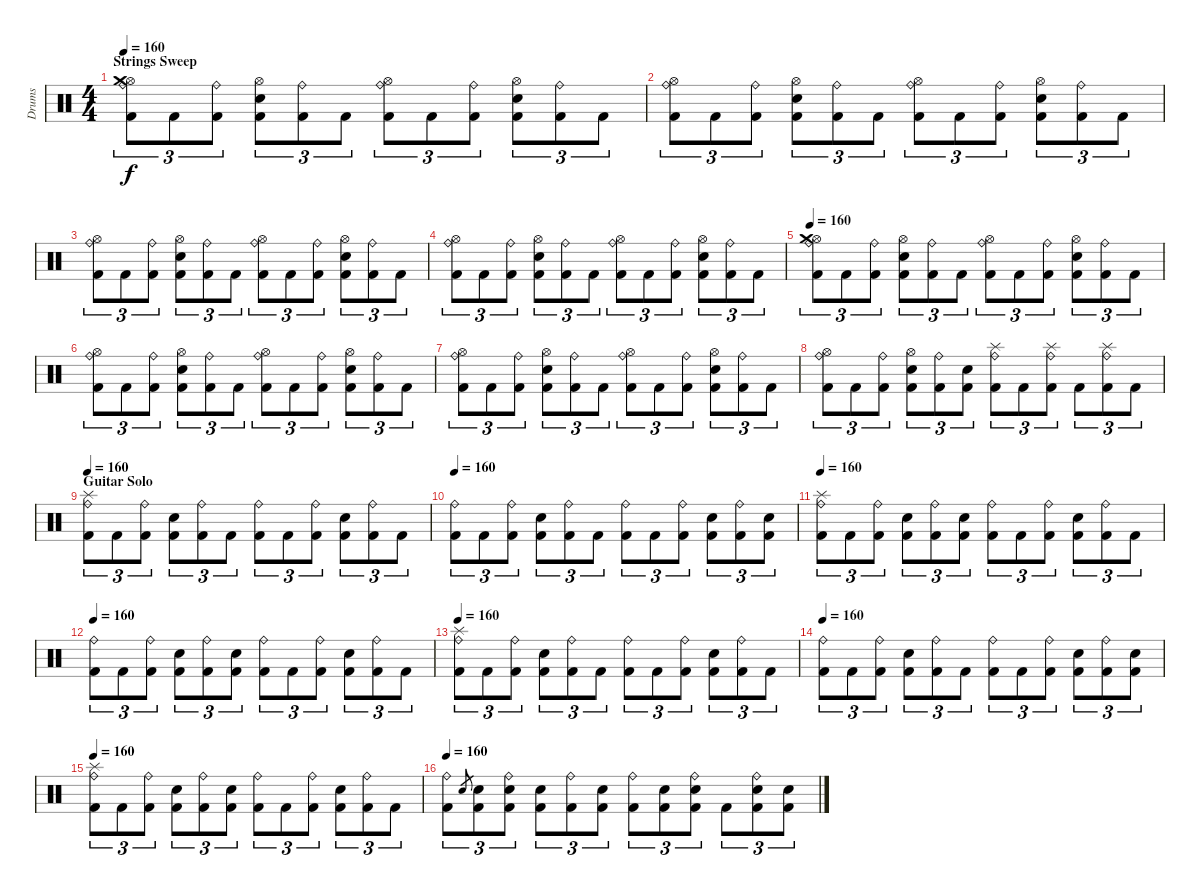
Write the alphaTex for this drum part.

\track ("Drums" "Drums") {instrument percussion}
\staff {score}
\articulation defaults
\ts (4 4)
\section ("" "Strings Sweep")
\tempo 160
\clef neutral
\ks c
("Ride (bell)" "Hi-Hat (open)" "Crash medium (hit)" "Kick (hit) 2").8{tu (3 2) dy f} "Kick (hit) 2".8{tu (3 2)} ("Ride (bell)" "Kick (hit) 2").8{tu (3 2)} ("Hi-Hat (open)" "Snare (hit) 2" "Kick (hit) 2").8{tu (3 2)} ("Ride (bell)" "Kick (hit) 2").8{tu (3 2)} "Kick (hit) 2".8{tu (3 2)} ("Ride (bell)" "Hi-Hat (open)" "Kick (hit) 2").8{tu (3 2)} "Kick (hit) 2".8{tu (3 2)} ("Ride (bell)" "Kick (hit) 2").8{tu (3 2)} ("Hi-Hat (open)" "Snare (hit) 2" "Kick (hit) 2").8{tu (3 2)} ("Ride (bell)" "Kick (hit) 2").8{tu (3 2)} "Kick (hit) 2".8{tu (3 2)} |
("Ride (bell)" "Hi-Hat (open)" "Kick (hit) 2").8{tu (3 2)} "Kick (hit) 2".8{tu (3 2)} ("Ride (bell)" "Kick (hit) 2").8{tu (3 2)} ("Hi-Hat (open)" "Snare (hit) 2" "Kick (hit) 2").8{tu (3 2)} ("Ride (bell)" "Kick (hit) 2").8{tu (3 2)} "Kick (hit) 2".8{tu (3 2)} ("Ride (bell)" "Hi-Hat (open)" "Kick (hit) 2").8{tu (3 2)} "Kick (hit) 2".8{tu (3 2)} ("Ride (bell)" "Kick (hit) 2").8{tu (3 2)} ("Hi-Hat (open)" "Snare (hit) 2" "Kick (hit) 2").8{tu (3 2)} ("Ride (bell)" "Kick (hit) 2").8{tu (3 2)} "Kick (hit) 2".8{tu (3 2)} |
("Ride (bell)" "Hi-Hat (open)" "Kick (hit) 2").8{tu (3 2)} "Kick (hit) 2".8{tu (3 2)} ("Ride (bell)" "Kick (hit) 2").8{tu (3 2)} ("Hi-Hat (open)" "Snare (hit) 2" "Kick (hit) 2").8{tu (3 2)} ("Ride (bell)" "Kick (hit) 2").8{tu (3 2)} "Kick (hit) 2".8{tu (3 2)} ("Ride (bell)" "Hi-Hat (open)" "Kick (hit) 2").8{tu (3 2)} "Kick (hit) 2".8{tu (3 2)} ("Ride (bell)" "Kick (hit) 2").8{tu (3 2)} ("Hi-Hat (open)" "Snare (hit) 2" "Kick (hit) 2").8{tu (3 2)} ("Ride (bell)" "Kick (hit) 2").8{tu (3 2)} "Kick (hit) 2".8{tu (3 2)} |
("Ride (bell)" "Hi-Hat (open)" "Kick (hit) 2").8{tu (3 2)} "Kick (hit) 2".8{tu (3 2)} ("Ride (bell)" "Kick (hit) 2").8{tu (3 2)} ("Hi-Hat (open)" "Snare (hit) 2" "Kick (hit) 2").8{tu (3 2)} ("Ride (bell)" "Kick (hit) 2").8{tu (3 2)} "Kick (hit) 2".8{tu (3 2)} ("Ride (bell)" "Hi-Hat (open)" "Kick (hit) 2").8{tu (3 2)} "Kick (hit) 2".8{tu (3 2)} ("Ride (bell)" "Kick (hit) 2").8{tu (3 2)} ("Hi-Hat (open)" "Snare (hit) 2" "Kick (hit) 2").8{tu (3 2)} ("Ride (bell)" "Kick (hit) 2").8{tu (3 2)} "Kick (hit) 2".8{tu (3 2)} |
\tempo 160
("Ride (bell)" "Hi-Hat (open)" "Crash medium (hit)" "Kick (hit) 2").8{tu (3 2)} "Kick (hit) 2".8{tu (3 2)} ("Ride (bell)" "Kick (hit) 2").8{tu (3 2)} ("Hi-Hat (open)" "Snare (hit) 2" "Kick (hit) 2").8{tu (3 2)} ("Ride (bell)" "Kick (hit) 2").8{tu (3 2)} "Kick (hit) 2".8{tu (3 2)} ("Ride (bell)" "Hi-Hat (open)" "Kick (hit) 2").8{tu (3 2)} "Kick (hit) 2".8{tu (3 2)} ("Ride (bell)" "Kick (hit) 2").8{tu (3 2)} ("Hi-Hat (open)" "Snare (hit) 2" "Kick (hit) 2").8{tu (3 2)} ("Ride (bell)" "Kick (hit) 2").8{tu (3 2)} "Kick (hit) 2".8{tu (3 2)} |
("Ride (bell)" "Hi-Hat (open)" "Kick (hit) 2").8{tu (3 2)} "Kick (hit) 2".8{tu (3 2)} ("Ride (bell)" "Kick (hit) 2").8{tu (3 2)} ("Hi-Hat (open)" "Snare (hit) 2" "Kick (hit) 2").8{tu (3 2)} ("Ride (bell)" "Kick (hit) 2").8{tu (3 2)} "Kick (hit) 2".8{tu (3 2)} ("Ride (bell)" "Hi-Hat (open)" "Kick (hit) 2").8{tu (3 2)} "Kick (hit) 2".8{tu (3 2)} ("Ride (bell)" "Kick (hit) 2").8{tu (3 2)} ("Hi-Hat (open)" "Snare (hit) 2" "Kick (hit) 2").8{tu (3 2)} ("Ride (bell)" "Kick (hit) 2").8{tu (3 2)} "Kick (hit) 2".8{tu (3 2)} |
("Ride (bell)" "Hi-Hat (open)" "Kick (hit) 2").8{tu (3 2)} "Kick (hit) 2".8{tu (3 2)} ("Ride (bell)" "Kick (hit) 2").8{tu (3 2)} ("Hi-Hat (open)" "Snare (hit) 2" "Kick (hit) 2").8{tu (3 2)} ("Ride (bell)" "Kick (hit) 2").8{tu (3 2)} "Kick (hit) 2".8{tu (3 2)} ("Ride (bell)" "Hi-Hat (open)" "Kick (hit) 2").8{tu (3 2)} "Kick (hit) 2".8{tu (3 2)} ("Ride (bell)" "Kick (hit) 2").8{tu (3 2)} ("Hi-Hat (open)" "Snare (hit) 2" "Kick (hit) 2").8{tu (3 2)} ("Ride (bell)" "Kick (hit) 2").8{tu (3 2)} "Kick (hit) 2".8{tu (3 2)} |
("Ride (bell)" "Hi-Hat (open)" "Kick (hit) 2").8{tu (3 2)} "Kick (hit) 2".8{tu (3 2)} ("Ride (bell)" "Kick (hit) 2").8{tu (3 2)} ("Hi-Hat (open)" "Snare (hit) 2" "Kick (hit) 2").8{tu (3 2)} ("Ride (bell)" "Kick (hit) 2").8{tu (3 2)} ("Snare (hit) 2" "Kick (hit) 2").8{tu (3 2)} ("Ride (bell)" "Splash (hit)" "Kick (hit) 2").8{tu (3 2)} "Kick (hit) 2".8{tu (3 2)} ("Ride (bell)" "Splash (hit)" "Kick (hit) 2").8{tu (3 2)} "Kick (hit) 2".8{tu (3 2)} ("Ride (bell)" "Splash (hit)" "Kick (hit) 2").8{tu (3 2)} "Kick (hit) 2".8{tu (3 2)} |
\section ("" "Guitar Solo")
\tempo 160
("Ride (bell)" "Splash (hit)" "Kick (hit) 2").8{tu (3 2)} "Kick (hit) 2".8{tu (3 2)} ("Ride (bell)" "Kick (hit) 2").8{tu (3 2)} ("Snare (hit) 2" "Kick (hit) 2").8{tu (3 2)} ("Ride (bell)" "Kick (hit) 2").8{tu (3 2)} "Kick (hit) 2".8{tu (3 2)} ("Ride (bell)" "Kick (hit) 2").8{tu (3 2)} "Kick (hit) 2".8{tu (3 2)} ("Ride (bell)" "Kick (hit) 2").8{tu (3 2)} ("Snare (hit) 2" "Kick (hit) 2").8{tu (3 2)} ("Ride (bell)" "Kick (hit) 2").8{tu (3 2)} "Kick (hit) 2".8{tu (3 2)} |
\tempo 160
("Ride (bell)" "Kick (hit) 2").8{tu (3 2)} "Kick (hit) 2".8{tu (3 2)} ("Ride (bell)" "Kick (hit) 2").8{tu (3 2)} ("Snare (hit) 2" "Kick (hit) 2").8{tu (3 2)} ("Ride (bell)" "Kick (hit) 2").8{tu (3 2)} "Kick (hit) 2".8{tu (3 2)} ("Ride (bell)" "Kick (hit) 2").8{tu (3 2)} "Kick (hit) 2".8{tu (3 2)} ("Ride (bell)" "Kick (hit) 2").8{tu (3 2)} ("Snare (hit) 2" "Kick (hit) 2").8{tu (3 2)} ("Ride (bell)" "Kick (hit) 2").8{tu (3 2)} ("Snare (hit) 2" "Kick (hit) 2").8{tu (3 2)} |
\tempo 160
("Ride (bell)" "Splash (hit)" "Kick (hit) 2").8{tu (3 2)} "Kick (hit) 2".8{tu (3 2)} ("Ride (bell)" "Kick (hit) 2").8{tu (3 2)} ("Snare (hit) 2" "Kick (hit) 2").8{tu (3 2)} ("Ride (bell)" "Kick (hit) 2").8{tu (3 2)} ("Snare (hit)" "Kick (hit) 2").8{tu (3 2)} ("Ride (bell)" "Kick (hit) 2").8{tu (3 2)} "Kick (hit) 2".8{tu (3 2)} ("Ride (bell)" "Kick (hit) 2").8{tu (3 2)} ("Snare (hit) 2" "Kick (hit) 2").8{tu (3 2)} ("Ride (bell)" "Kick (hit) 2").8{tu (3 2)} "Kick (hit) 2".8{tu (3 2)} |
\tempo 160
("Ride (bell)" "Kick (hit) 2").8{tu (3 2)} "Kick (hit) 2".8{tu (3 2)} ("Ride (bell)" "Kick (hit) 2").8{tu (3 2)} ("Snare (hit) 2" "Kick (hit) 2").8{tu (3 2)} ("Ride (bell)" "Kick (hit) 2").8{tu (3 2)} ("Snare (hit) 2" "Kick (hit) 2").8{tu (3 2)} ("Ride (bell)" "Kick (hit) 2").8{tu (3 2)} "Kick (hit) 2".8{tu (3 2)} ("Ride (bell)" "Kick (hit) 2").8{tu (3 2)} ("Snare (hit) 2" "Kick (hit) 2").8{tu (3 2)} ("Ride (bell)" "Kick (hit) 2").8{tu (3 2)} "Kick (hit) 2".8{tu (3 2)} |
\tempo 160
("Ride (bell)" "Splash (hit)" "Kick (hit) 2").8{tu (3 2)} "Kick (hit) 2".8{tu (3 2)} ("Ride (bell)" "Kick (hit) 2").8{tu (3 2)} ("Snare (hit) 2" "Kick (hit) 2").8{tu (3 2)} ("Ride (bell)" "Kick (hit) 2").8{tu (3 2)} "Kick (hit) 2".8{tu (3 2)} ("Ride (bell)" "Kick (hit) 2").8{tu (3 2)} "Kick (hit) 2".8{tu (3 2)} ("Ride (bell)" "Kick (hit) 2").8{tu (3 2)} ("Snare (hit) 2" "Kick (hit) 2").8{tu (3 2)} ("Ride (bell)" "Kick (hit) 2").8{tu (3 2)} "Kick (hit) 2".8{tu (3 2)} |
\tempo 160
("Ride (bell)" "Kick (hit) 2").8{tu (3 2)} "Kick (hit) 2".8{tu (3 2)} ("Ride (bell)" "Kick (hit) 2").8{tu (3 2)} ("Snare (hit) 2" "Kick (hit) 2").8{tu (3 2)} ("Ride (bell)" "Kick (hit) 2").8{tu (3 2)} "Kick (hit) 2".8{tu (3 2)} ("Ride (bell)" "Kick (hit) 2").8{tu (3 2)} "Kick (hit) 2".8{tu (3 2)} ("Ride (bell)" "Kick (hit) 2").8{tu (3 2)} ("Snare (hit) 2" "Kick (hit) 2").8{tu (3 2)} ("Ride (bell)" "Kick (hit) 2").8{tu (3 2)} ("Snare (hit) 2" "Kick (hit) 2").8{tu (3 2)} |
\tempo 160
("Ride (bell)" "Splash (hit)" "Kick (hit) 2").8{tu (3 2)} "Kick (hit) 2".8{tu (3 2)} ("Ride (bell)" "Kick (hit) 2").8{tu (3 2)} ("Snare (hit) 2" "Kick (hit) 2").8{tu (3 2)} ("Ride (bell)" "Kick (hit) 2").8{tu (3 2)} ("Snare (hit) 2" "Kick (hit) 2").8{tu (3 2)} ("Ride (bell)" "Kick (hit) 2").8{tu (3 2)} "Kick (hit) 2".8{tu (3 2)} ("Ride (bell)" "Kick (hit) 2").8{tu (3 2)} ("Snare (hit) 2" "Kick (hit) 2").8{tu (3 2)} ("Ride (bell)" "Kick (hit) 2").8{tu (3 2)} "Kick (hit) 2".8{tu (3 2)} |
\tempo 160
("Ride (bell)" "Kick (hit) 2").8{tu (3 2)} "Snare (hit) 2".8{gr} ("Snare (hit) 2" "Kick (hit) 2").8{tu (3 2)} ("Ride (bell)" "Snare (hit) 2" "Kick (hit) 2").8{tu (3 2)} ("Snare (hit) 2" "Kick (hit) 2").8{tu (3 2)} ("Ride (bell)" "Kick (hit) 2").8{tu (3 2)} ("Snare (hit) 2" "Kick (hit) 2").8{tu (3 2)} ("Ride (bell)" "Kick (hit) 2").8{tu (3 2)} ("Snare (hit) 2" "Kick (hit) 2").8{tu (3 2)} ("Ride (bell)" "Snare (hit) 2" "Kick (hit) 2").8{tu (3 2)} "Kick (hit) 2".8{tu (3 2)} ("Ride (bell)" "Snare (hit) 2" "Kick (hit) 2").8{tu (3 2)} ("Snare (hit) 2" "Kick (hit) 2").8{tu (3 2)}
